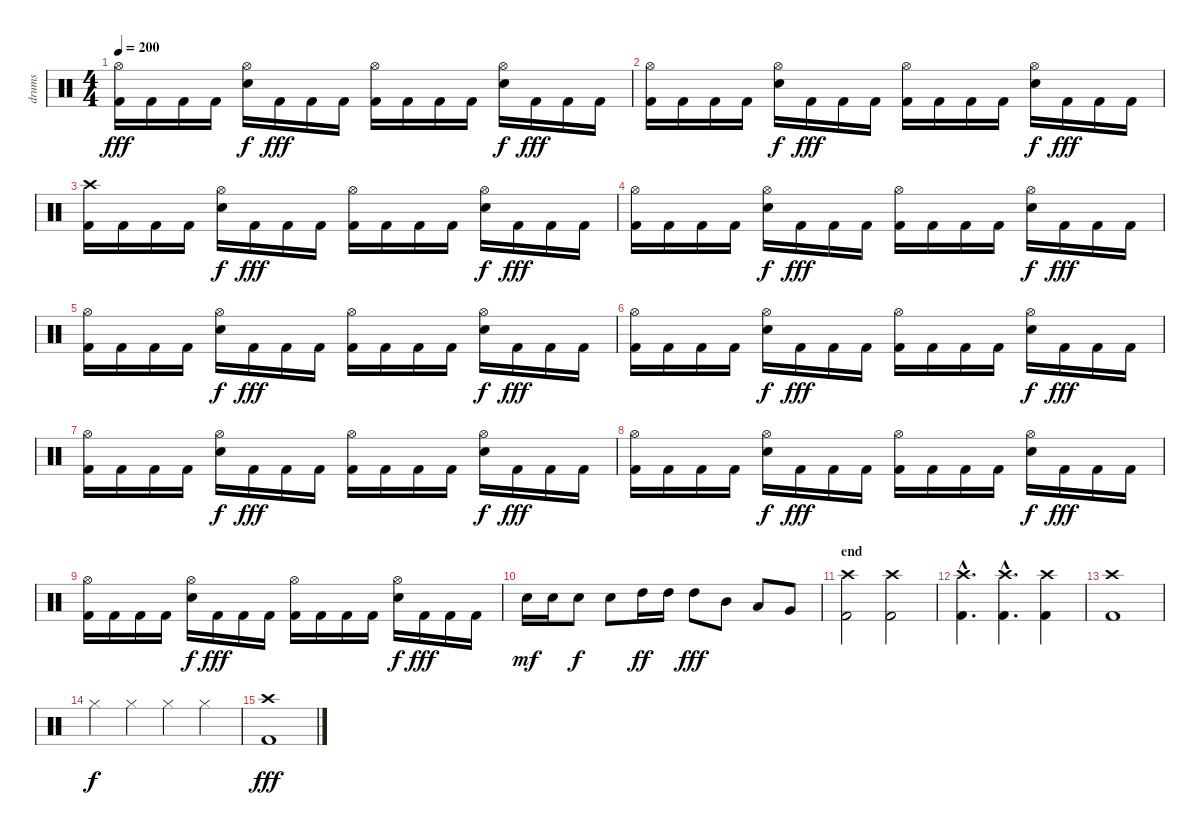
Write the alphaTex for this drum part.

\track ("drums" "drums") {instrument percussion}
\staff {score}
\articulation defaults
\ts (4 4)
\tempo 200
\clef neutral
\ks c
("Hi-Hat (open)" "Kick (hit) 2").16{dy fff} "Kick (hit) 2".16 "Kick (hit) 2".16 "Kick (hit) 2".16 ("Hi-Hat (open)" "Snare (hit) 2").16{dy f} "Kick (hit) 2".16{dy fff} "Kick (hit) 2".16 "Kick (hit) 2".16 ("Hi-Hat (open)" "Kick (hit) 2").16 "Kick (hit) 2".16 "Kick (hit) 2".16 "Kick (hit) 2".16 ("Hi-Hat (open)" "Snare (hit) 2").16{dy f} "Kick (hit) 2".16{dy fff} "Kick (hit) 2".16 "Kick (hit) 2".16 |
("Hi-Hat (open)" "Kick (hit) 2").16 "Kick (hit) 2".16 "Kick (hit) 2".16 "Kick (hit) 2".16 ("Hi-Hat (open)" "Snare (hit) 2").16{dy f} "Kick (hit) 2".16{dy fff} "Kick (hit) 2".16 "Kick (hit) 2".16 ("Hi-Hat (open)" "Kick (hit) 2").16 "Kick (hit) 2".16 "Kick (hit) 2".16 "Kick (hit) 2".16 ("Hi-Hat (open)" "Snare (hit) 2").16{dy f} "Kick (hit) 2".16{dy fff} "Kick (hit) 2".16 "Kick (hit) 2".16 |
("Crash high (hit)" "Kick (hit) 2").16 "Kick (hit) 2".16 "Kick (hit) 2".16 "Kick (hit) 2".16 ("Hi-Hat (open)" "Snare (hit) 2").16{dy f} "Kick (hit) 2".16{dy fff} "Kick (hit) 2".16 "Kick (hit) 2".16 ("Hi-Hat (open)" "Kick (hit) 2").16 "Kick (hit) 2".16 "Kick (hit) 2".16 "Kick (hit) 2".16 ("Hi-Hat (open)" "Snare (hit) 2").16{dy f} "Kick (hit) 2".16{dy fff} "Kick (hit) 2".16 "Kick (hit) 2".16 |
("Hi-Hat (open)" "Kick (hit) 2").16 "Kick (hit) 2".16 "Kick (hit) 2".16 "Kick (hit) 2".16 ("Hi-Hat (open)" "Snare (hit) 2").16{dy f} "Kick (hit) 2".16{dy fff} "Kick (hit) 2".16 "Kick (hit) 2".16 ("Hi-Hat (open)" "Kick (hit) 2").16 "Kick (hit) 2".16 "Kick (hit) 2".16 "Kick (hit) 2".16 ("Hi-Hat (open)" "Snare (hit) 2").16{dy f} "Kick (hit) 2".16{dy fff} "Kick (hit) 2".16 "Kick (hit) 2".16 |
("Hi-Hat (open)" "Kick (hit) 2").16 "Kick (hit) 2".16 "Kick (hit) 2".16 "Kick (hit) 2".16 ("Hi-Hat (open)" "Snare (hit) 2").16{dy f} "Kick (hit) 2".16{dy fff} "Kick (hit) 2".16 "Kick (hit) 2".16 ("Hi-Hat (open)" "Kick (hit) 2").16 "Kick (hit) 2".16 "Kick (hit) 2".16 "Kick (hit) 2".16 ("Hi-Hat (open)" "Snare (hit) 2").16{dy f} "Kick (hit) 2".16{dy fff} "Kick (hit) 2".16 "Kick (hit) 2".16 |
("Hi-Hat (open)" "Kick (hit) 2").16 "Kick (hit) 2".16 "Kick (hit) 2".16 "Kick (hit) 2".16 ("Hi-Hat (open)" "Snare (hit) 2").16{dy f} "Kick (hit) 2".16{dy fff} "Kick (hit) 2".16 "Kick (hit) 2".16 ("Hi-Hat (open)" "Kick (hit) 2").16 "Kick (hit) 2".16 "Kick (hit) 2".16 "Kick (hit) 2".16 ("Hi-Hat (open)" "Snare (hit) 2").16{dy f} "Kick (hit) 2".16{dy fff} "Kick (hit) 2".16 "Kick (hit) 2".16 |
("Hi-Hat (open)" "Kick (hit) 2").16 "Kick (hit) 2".16 "Kick (hit) 2".16 "Kick (hit) 2".16 ("Hi-Hat (open)" "Snare (hit) 2").16{dy f} "Kick (hit) 2".16{dy fff} "Kick (hit) 2".16 "Kick (hit) 2".16 ("Hi-Hat (open)" "Kick (hit) 2").16 "Kick (hit) 2".16 "Kick (hit) 2".16 "Kick (hit) 2".16 ("Hi-Hat (open)" "Snare (hit) 2").16{dy f} "Kick (hit) 2".16{dy fff} "Kick (hit) 2".16 "Kick (hit) 2".16 |
("Hi-Hat (open)" "Kick (hit) 2").16 "Kick (hit) 2".16 "Kick (hit) 2".16 "Kick (hit) 2".16 ("Hi-Hat (open)" "Snare (hit) 2").16{dy f} "Kick (hit) 2".16{dy fff} "Kick (hit) 2".16 "Kick (hit) 2".16 ("Hi-Hat (open)" "Kick (hit) 2").16 "Kick (hit) 2".16 "Kick (hit) 2".16 "Kick (hit) 2".16 ("Hi-Hat (open)" "Snare (hit) 2").16{dy f} "Kick (hit) 2".16{dy fff} "Kick (hit) 2".16 "Kick (hit) 2".16 |
("Hi-Hat (open)" "Kick (hit) 2").16 "Kick (hit) 2".16 "Kick (hit) 2".16 "Kick (hit) 2".16 ("Hi-Hat (open)" "Snare (hit) 2").16{dy f} "Kick (hit) 2".16{dy fff} "Kick (hit) 2".16 "Kick (hit) 2".16 ("Hi-Hat (open)" "Kick (hit) 2").16 "Kick (hit) 2".16 "Kick (hit) 2".16 "Kick (hit) 2".16 ("Hi-Hat (open)" "Snare (hit) 2").16{dy f} "Kick (hit) 2".16{dy fff} "Kick (hit) 2".16 "Kick (hit) 2".16 |
"Snare (hit) 2".16{dy mf} "Snare (hit) 2".16 "Snare (hit) 2".8{dy f} "Snare (hit) 2".8 "High Tom (hit)".16{dy ff} "High Tom (hit)".16 "High Tom (hit)".8{dy fff} "Mid Tom (hit)".8 "Low Tom (hit)".8 "Very Low Tom (hit)".8 |
\section ("" "end")
("Crash high (hit)" "Kick (hit) 2").2 ("Crash high (hit)" "Kick (hit) 2").2 |
("Crash high (hit)"{hac} "Kick (hit) 2"{hac}).4{d} ("Crash high (hit)"{hac} "Kick (hit) 2"{hac}).4{d} ("Crash high (hit)" "Kick (hit) 2").4 |
("Crash high (hit)" "Kick (hit) 2").1 |
"Hi-Hat (closed)".4{dy f} "Hi-Hat (closed)".4 "Hi-Hat (closed)".4 "Hi-Hat (closed)".4 |
("Crash high (hit)" "Kick (hit) 2").1{dy fff}
